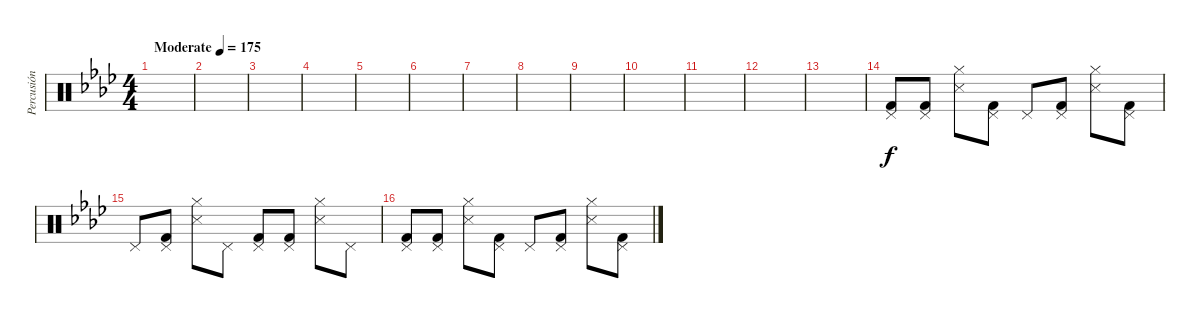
\track ("Percusión" "Percusión") {instrument percussion}
\staff {score}
\articulation defaults
\ts (4 4)
\tempo (175 "Moderate")
\clef neutral
\ks fminor
|
|
|
|
|
|
|
|
|
|
|
|
|
("Kick (hit) 2" "Pedal Hi-Hat (hit)").8 ("Kick (hit) 2" "Pedal Hi-Hat (hit)").8 ("Snare (side stick) 3" "Hi-Hat (closed)").8 ("Kick (hit) 2" "Pedal Hi-Hat (hit)").8 "Pedal Hi-Hat (hit)".8 ("Kick (hit) 2" "Pedal Hi-Hat (hit)").8 ("Snare (side stick) 3" "Hi-Hat (closed)").8 ("Kick (hit) 2" "Pedal Hi-Hat (hit)").8 |
"Pedal Hi-Hat (hit)".8 ("Kick (hit) 2" "Pedal Hi-Hat (hit)").8 ("Snare (side stick) 3" "Hi-Hat (closed)").8 "Pedal Hi-Hat (hit)".8 ("Kick (hit) 2" "Pedal Hi-Hat (hit)").8 ("Kick (hit) 2" "Pedal Hi-Hat (hit)").8 ("Snare (side stick) 3" "Hi-Hat (closed)").8 "Pedal Hi-Hat (hit)".8 |
("Kick (hit) 2" "Pedal Hi-Hat (hit)").8 ("Kick (hit) 2" "Pedal Hi-Hat (hit)").8 ("Snare (side stick) 3" "Hi-Hat (closed)").8 ("Kick (hit) 2" "Pedal Hi-Hat (hit)").8 "Pedal Hi-Hat (hit)".8 ("Kick (hit) 2" "Pedal Hi-Hat (hit)").8 ("Snare (side stick) 3" "Hi-Hat (closed)").8 ("Kick (hit) 2" "Pedal Hi-Hat (hit)").8
